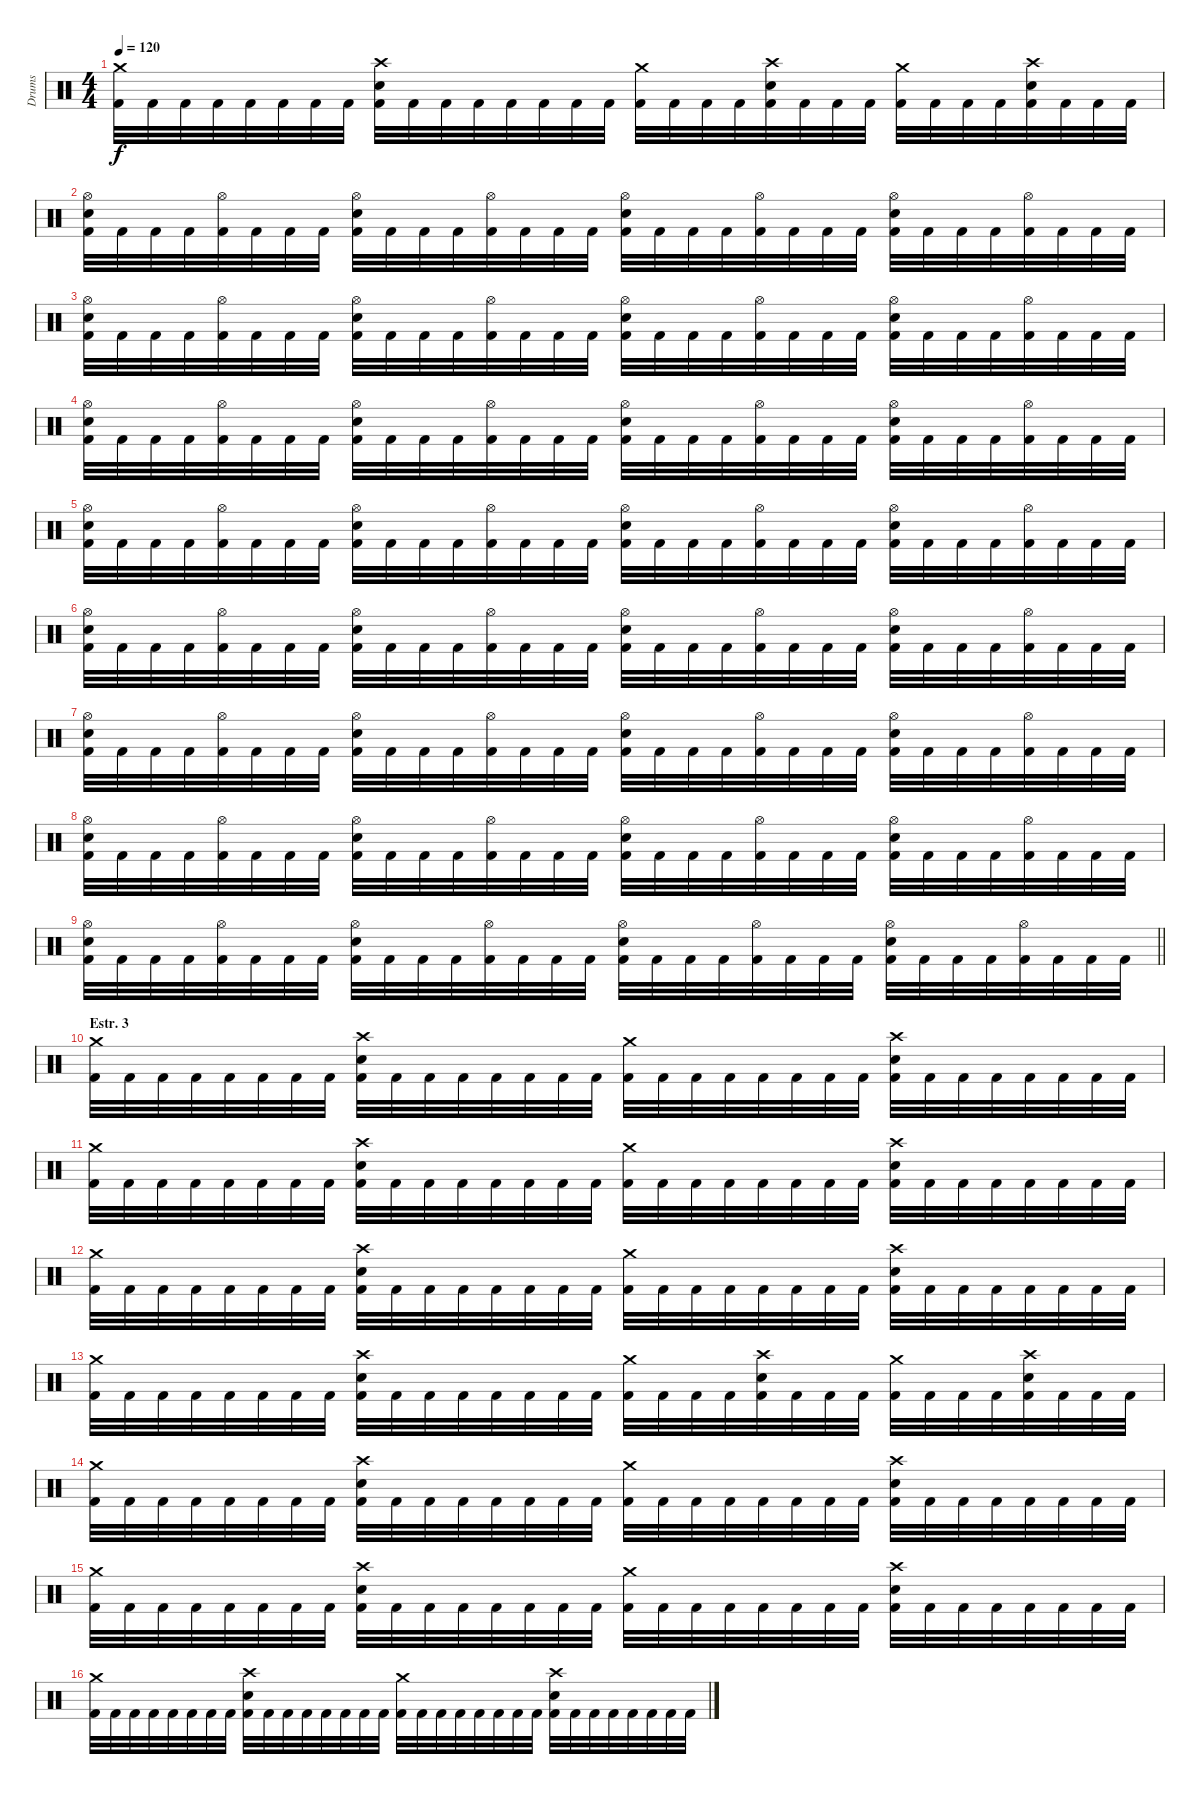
\track ("Drums" "Drums") {instrument percussion}
\staff {score}
\articulation defaults
\ts (4 4)
\tempo 120
\clef neutral
\ks c
("Kick (hit) 2" "Crash medium (hit)").32{dy f} "Kick (hit) 2".32 "Kick (hit) 2".32 "Kick (hit) 2".32 "Kick (hit) 2".32 "Kick (hit) 2".32 "Kick (hit) 2".32 "Kick (hit) 2".32 ("Kick (hit) 2" "Electric Snare (hit)" "Crash high (hit)").32 "Kick (hit) 2".32 "Kick (hit) 2".32 "Kick (hit) 2".32 "Kick (hit) 2".32 "Kick (hit) 2".32 "Kick (hit) 2".32 "Kick (hit) 2".32 ("Kick (hit) 2" "Crash medium (hit)").32 "Kick (hit) 2".32 "Kick (hit) 2".32 "Kick (hit) 2".32 ("Kick (hit) 2" "Electric Snare (hit)" "Crash high (hit)").32 "Kick (hit) 2".32 "Kick (hit) 2".32 "Kick (hit) 2".32 ("Kick (hit) 2" "Crash medium (hit)").32 "Kick (hit) 2".32 "Kick (hit) 2".32 "Kick (hit) 2".32 ("Kick (hit) 2" "Electric Snare (hit)" "Crash high (hit)").32 "Kick (hit) 2".32 "Kick (hit) 2".32 "Kick (hit) 2".32 |
("Kick (hit) 2" "Electric Snare (hit)" "Hi-Hat (open)").32 "Kick (hit) 2".32 "Kick (hit) 2".32 "Kick (hit) 2".32 ("Kick (hit) 2" "Hi-Hat (open)").32 "Kick (hit) 2".32 "Kick (hit) 2".32 "Kick (hit) 2".32 ("Kick (hit) 2" "Electric Snare (hit)" "Hi-Hat (open)").32 "Kick (hit) 2".32 "Kick (hit) 2".32 "Kick (hit) 2".32 ("Kick (hit) 2" "Hi-Hat (open)").32 "Kick (hit) 2".32 "Kick (hit) 2".32 "Kick (hit) 2".32 ("Kick (hit) 2" "Electric Snare (hit)" "Hi-Hat (open)").32 "Kick (hit) 2".32 "Kick (hit) 2".32 "Kick (hit) 2".32 ("Kick (hit) 2" "Hi-Hat (open)").32 "Kick (hit) 2".32 "Kick (hit) 2".32 "Kick (hit) 2".32 ("Kick (hit) 2" "Electric Snare (hit)" "Hi-Hat (open)").32 "Kick (hit) 2".32 "Kick (hit) 2".32 "Kick (hit) 2".32 ("Kick (hit) 2" "Hi-Hat (open)").32 "Kick (hit) 2".32 "Kick (hit) 2".32 "Kick (hit) 2".32 |
("Kick (hit) 2" "Electric Snare (hit)" "Hi-Hat (open)").32 "Kick (hit) 2".32 "Kick (hit) 2".32 "Kick (hit) 2".32 ("Kick (hit) 2" "Hi-Hat (open)").32 "Kick (hit) 2".32 "Kick (hit) 2".32 "Kick (hit) 2".32 ("Kick (hit) 2" "Electric Snare (hit)" "Hi-Hat (open)").32 "Kick (hit) 2".32 "Kick (hit) 2".32 "Kick (hit) 2".32 ("Kick (hit) 2" "Hi-Hat (open)").32 "Kick (hit) 2".32 "Kick (hit) 2".32 "Kick (hit) 2".32 ("Kick (hit) 2" "Electric Snare (hit)" "Hi-Hat (open)").32 "Kick (hit) 2".32 "Kick (hit) 2".32 "Kick (hit) 2".32 ("Kick (hit) 2" "Hi-Hat (open)").32 "Kick (hit) 2".32 "Kick (hit) 2".32 "Kick (hit) 2".32 ("Kick (hit) 2" "Electric Snare (hit)" "Hi-Hat (open)").32 "Kick (hit) 2".32 "Kick (hit) 2".32 "Kick (hit) 2".32 ("Kick (hit) 2" "Hi-Hat (open)").32 "Kick (hit) 2".32 "Kick (hit) 2".32 "Kick (hit) 2".32 |
("Kick (hit) 2" "Electric Snare (hit)" "Hi-Hat (open)").32 "Kick (hit) 2".32 "Kick (hit) 2".32 "Kick (hit) 2".32 ("Kick (hit) 2" "Hi-Hat (open)").32 "Kick (hit) 2".32 "Kick (hit) 2".32 "Kick (hit) 2".32 ("Kick (hit) 2" "Electric Snare (hit)" "Hi-Hat (open)").32 "Kick (hit) 2".32 "Kick (hit) 2".32 "Kick (hit) 2".32 ("Kick (hit) 2" "Hi-Hat (open)").32 "Kick (hit) 2".32 "Kick (hit) 2".32 "Kick (hit) 2".32 ("Kick (hit) 2" "Electric Snare (hit)" "Hi-Hat (open)").32 "Kick (hit) 2".32 "Kick (hit) 2".32 "Kick (hit) 2".32 ("Kick (hit) 2" "Hi-Hat (open)").32 "Kick (hit) 2".32 "Kick (hit) 2".32 "Kick (hit) 2".32 ("Kick (hit) 2" "Electric Snare (hit)" "Hi-Hat (open)").32 "Kick (hit) 2".32 "Kick (hit) 2".32 "Kick (hit) 2".32 ("Kick (hit) 2" "Hi-Hat (open)").32 "Kick (hit) 2".32 "Kick (hit) 2".32 "Kick (hit) 2".32 |
("Kick (hit) 2" "Electric Snare (hit)" "Hi-Hat (open)").32 "Kick (hit) 2".32 "Kick (hit) 2".32 "Kick (hit) 2".32 ("Kick (hit) 2" "Hi-Hat (open)").32 "Kick (hit) 2".32 "Kick (hit) 2".32 "Kick (hit) 2".32 ("Kick (hit) 2" "Electric Snare (hit)" "Hi-Hat (open)").32 "Kick (hit) 2".32 "Kick (hit) 2".32 "Kick (hit) 2".32 ("Kick (hit) 2" "Hi-Hat (open)").32 "Kick (hit) 2".32 "Kick (hit) 2".32 "Kick (hit) 2".32 ("Kick (hit) 2" "Electric Snare (hit)" "Hi-Hat (open)").32 "Kick (hit) 2".32 "Kick (hit) 2".32 "Kick (hit) 2".32 ("Kick (hit) 2" "Hi-Hat (open)").32 "Kick (hit) 2".32 "Kick (hit) 2".32 "Kick (hit) 2".32 ("Kick (hit) 2" "Electric Snare (hit)" "Hi-Hat (open)").32 "Kick (hit) 2".32 "Kick (hit) 2".32 "Kick (hit) 2".32 ("Kick (hit) 2" "Hi-Hat (open)").32 "Kick (hit) 2".32 "Kick (hit) 2".32 "Kick (hit) 2".32 |
("Kick (hit) 2" "Electric Snare (hit)" "Hi-Hat (open)").32 "Kick (hit) 2".32 "Kick (hit) 2".32 "Kick (hit) 2".32 ("Kick (hit) 2" "Hi-Hat (open)").32 "Kick (hit) 2".32 "Kick (hit) 2".32 "Kick (hit) 2".32 ("Kick (hit) 2" "Electric Snare (hit)" "Hi-Hat (open)").32 "Kick (hit) 2".32 "Kick (hit) 2".32 "Kick (hit) 2".32 ("Kick (hit) 2" "Hi-Hat (open)").32 "Kick (hit) 2".32 "Kick (hit) 2".32 "Kick (hit) 2".32 ("Kick (hit) 2" "Electric Snare (hit)" "Hi-Hat (open)").32 "Kick (hit) 2".32 "Kick (hit) 2".32 "Kick (hit) 2".32 ("Kick (hit) 2" "Hi-Hat (open)").32 "Kick (hit) 2".32 "Kick (hit) 2".32 "Kick (hit) 2".32 ("Kick (hit) 2" "Electric Snare (hit)" "Hi-Hat (open)").32 "Kick (hit) 2".32 "Kick (hit) 2".32 "Kick (hit) 2".32 ("Kick (hit) 2" "Hi-Hat (open)").32 "Kick (hit) 2".32 "Kick (hit) 2".32 "Kick (hit) 2".32 |
("Kick (hit) 2" "Electric Snare (hit)" "Hi-Hat (open)").32 "Kick (hit) 2".32 "Kick (hit) 2".32 "Kick (hit) 2".32 ("Kick (hit) 2" "Hi-Hat (open)").32 "Kick (hit) 2".32 "Kick (hit) 2".32 "Kick (hit) 2".32 ("Kick (hit) 2" "Electric Snare (hit)" "Hi-Hat (open)").32 "Kick (hit) 2".32 "Kick (hit) 2".32 "Kick (hit) 2".32 ("Kick (hit) 2" "Hi-Hat (open)").32 "Kick (hit) 2".32 "Kick (hit) 2".32 "Kick (hit) 2".32 ("Kick (hit) 2" "Electric Snare (hit)" "Hi-Hat (open)").32 "Kick (hit) 2".32 "Kick (hit) 2".32 "Kick (hit) 2".32 ("Kick (hit) 2" "Hi-Hat (open)").32 "Kick (hit) 2".32 "Kick (hit) 2".32 "Kick (hit) 2".32 ("Kick (hit) 2" "Electric Snare (hit)" "Hi-Hat (open)").32 "Kick (hit) 2".32 "Kick (hit) 2".32 "Kick (hit) 2".32 ("Kick (hit) 2" "Hi-Hat (open)").32 "Kick (hit) 2".32 "Kick (hit) 2".32 "Kick (hit) 2".32 |
("Kick (hit) 2" "Electric Snare (hit)" "Hi-Hat (open)").32 "Kick (hit) 2".32 "Kick (hit) 2".32 "Kick (hit) 2".32 ("Kick (hit) 2" "Hi-Hat (open)").32 "Kick (hit) 2".32 "Kick (hit) 2".32 "Kick (hit) 2".32 ("Kick (hit) 2" "Electric Snare (hit)" "Hi-Hat (open)").32 "Kick (hit) 2".32 "Kick (hit) 2".32 "Kick (hit) 2".32 ("Kick (hit) 2" "Hi-Hat (open)").32 "Kick (hit) 2".32 "Kick (hit) 2".32 "Kick (hit) 2".32 ("Kick (hit) 2" "Electric Snare (hit)" "Hi-Hat (open)").32 "Kick (hit) 2".32 "Kick (hit) 2".32 "Kick (hit) 2".32 ("Kick (hit) 2" "Hi-Hat (open)").32 "Kick (hit) 2".32 "Kick (hit) 2".32 "Kick (hit) 2".32 ("Kick (hit) 2" "Electric Snare (hit)" "Hi-Hat (open)").32 "Kick (hit) 2".32 "Kick (hit) 2".32 "Kick (hit) 2".32 ("Kick (hit) 2" "Hi-Hat (open)").32 "Kick (hit) 2".32 "Kick (hit) 2".32 "Kick (hit) 2".32 |
\barLineRight lightlight
("Kick (hit) 2" "Electric Snare (hit)" "Hi-Hat (open)").32 "Kick (hit) 2".32 "Kick (hit) 2".32 "Kick (hit) 2".32 ("Kick (hit) 2" "Hi-Hat (open)").32 "Kick (hit) 2".32 "Kick (hit) 2".32 "Kick (hit) 2".32 ("Kick (hit) 2" "Electric Snare (hit)" "Hi-Hat (open)").32 "Kick (hit) 2".32 "Kick (hit) 2".32 "Kick (hit) 2".32 ("Kick (hit) 2" "Hi-Hat (open)").32 "Kick (hit) 2".32 "Kick (hit) 2".32 "Kick (hit) 2".32 ("Kick (hit) 2" "Electric Snare (hit)" "Hi-Hat (open)").32 "Kick (hit) 2".32 "Kick (hit) 2".32 "Kick (hit) 2".32 ("Kick (hit) 2" "Hi-Hat (open)").32 "Kick (hit) 2".32 "Kick (hit) 2".32 "Kick (hit) 2".32 ("Kick (hit) 2" "Electric Snare (hit)" "Hi-Hat (open)").32 "Kick (hit) 2".32 "Kick (hit) 2".32 "Kick (hit) 2".32 ("Kick (hit) 2" "Hi-Hat (open)").32 "Kick (hit) 2".32 "Kick (hit) 2".32 "Kick (hit) 2".32 |
\section ("" "Estr. 3")
("Kick (hit) 2" "Crash medium (hit)").32 "Kick (hit) 2".32 "Kick (hit) 2".32 "Kick (hit) 2".32 "Kick (hit) 2".32 "Kick (hit) 2".32 "Kick (hit) 2".32 "Kick (hit) 2".32 ("Kick (hit) 2" "Electric Snare (hit)" "Crash high (hit)").32 "Kick (hit) 2".32 "Kick (hit) 2".32 "Kick (hit) 2".32 "Kick (hit) 2".32 "Kick (hit) 2".32 "Kick (hit) 2".32 "Kick (hit) 2".32 ("Kick (hit) 2" "Crash medium (hit)").32 "Kick (hit) 2".32 "Kick (hit) 2".32 "Kick (hit) 2".32 "Kick (hit) 2".32 "Kick (hit) 2".32 "Kick (hit) 2".32 "Kick (hit) 2".32 ("Kick (hit) 2" "Electric Snare (hit)" "Crash high (hit)").32 "Kick (hit) 2".32 "Kick (hit) 2".32 "Kick (hit) 2".32 "Kick (hit) 2".32 "Kick (hit) 2".32 "Kick (hit) 2".32 "Kick (hit) 2".32 |
("Kick (hit) 2" "Crash medium (hit)").32 "Kick (hit) 2".32 "Kick (hit) 2".32 "Kick (hit) 2".32 "Kick (hit) 2".32 "Kick (hit) 2".32 "Kick (hit) 2".32 "Kick (hit) 2".32 ("Kick (hit) 2" "Electric Snare (hit)" "Crash high (hit)").32 "Kick (hit) 2".32 "Kick (hit) 2".32 "Kick (hit) 2".32 "Kick (hit) 2".32 "Kick (hit) 2".32 "Kick (hit) 2".32 "Kick (hit) 2".32 ("Kick (hit) 2" "Crash medium (hit)").32 "Kick (hit) 2".32 "Kick (hit) 2".32 "Kick (hit) 2".32 "Kick (hit) 2".32 "Kick (hit) 2".32 "Kick (hit) 2".32 "Kick (hit) 2".32 ("Kick (hit) 2" "Electric Snare (hit)" "Crash high (hit)").32 "Kick (hit) 2".32 "Kick (hit) 2".32 "Kick (hit) 2".32 "Kick (hit) 2".32 "Kick (hit) 2".32 "Kick (hit) 2".32 "Kick (hit) 2".32 |
("Kick (hit) 2" "Crash medium (hit)").32 "Kick (hit) 2".32 "Kick (hit) 2".32 "Kick (hit) 2".32 "Kick (hit) 2".32 "Kick (hit) 2".32 "Kick (hit) 2".32 "Kick (hit) 2".32 ("Kick (hit) 2" "Electric Snare (hit)" "Crash high (hit)").32 "Kick (hit) 2".32 "Kick (hit) 2".32 "Kick (hit) 2".32 "Kick (hit) 2".32 "Kick (hit) 2".32 "Kick (hit) 2".32 "Kick (hit) 2".32 ("Kick (hit) 2" "Crash medium (hit)").32 "Kick (hit) 2".32 "Kick (hit) 2".32 "Kick (hit) 2".32 "Kick (hit) 2".32 "Kick (hit) 2".32 "Kick (hit) 2".32 "Kick (hit) 2".32 ("Kick (hit) 2" "Electric Snare (hit)" "Crash high (hit)").32 "Kick (hit) 2".32 "Kick (hit) 2".32 "Kick (hit) 2".32 "Kick (hit) 2".32 "Kick (hit) 2".32 "Kick (hit) 2".32 "Kick (hit) 2".32 |
("Kick (hit) 2" "Crash medium (hit)").32 "Kick (hit) 2".32 "Kick (hit) 2".32 "Kick (hit) 2".32 "Kick (hit) 2".32 "Kick (hit) 2".32 "Kick (hit) 2".32 "Kick (hit) 2".32 ("Kick (hit) 2" "Electric Snare (hit)" "Crash high (hit)").32 "Kick (hit) 2".32 "Kick (hit) 2".32 "Kick (hit) 2".32 "Kick (hit) 2".32 "Kick (hit) 2".32 "Kick (hit) 2".32 "Kick (hit) 2".32 ("Kick (hit) 2" "Crash medium (hit)").32 "Kick (hit) 2".32 "Kick (hit) 2".32 "Kick (hit) 2".32 ("Kick (hit) 2" "Electric Snare (hit)" "Crash high (hit)").32 "Kick (hit) 2".32 "Kick (hit) 2".32 "Kick (hit) 2".32 ("Kick (hit) 2" "Crash medium (hit)").32 "Kick (hit) 2".32 "Kick (hit) 2".32 "Kick (hit) 2".32 ("Kick (hit) 2" "Electric Snare (hit)" "Crash high (hit)").32 "Kick (hit) 2".32 "Kick (hit) 2".32 "Kick (hit) 2".32 |
("Kick (hit) 2" "Crash medium (hit)").32 "Kick (hit) 2".32 "Kick (hit) 2".32 "Kick (hit) 2".32 "Kick (hit) 2".32 "Kick (hit) 2".32 "Kick (hit) 2".32 "Kick (hit) 2".32 ("Kick (hit) 2" "Electric Snare (hit)" "Crash high (hit)").32 "Kick (hit) 2".32 "Kick (hit) 2".32 "Kick (hit) 2".32 "Kick (hit) 2".32 "Kick (hit) 2".32 "Kick (hit) 2".32 "Kick (hit) 2".32 ("Kick (hit) 2" "Crash medium (hit)").32 "Kick (hit) 2".32 "Kick (hit) 2".32 "Kick (hit) 2".32 "Kick (hit) 2".32 "Kick (hit) 2".32 "Kick (hit) 2".32 "Kick (hit) 2".32 ("Kick (hit) 2" "Electric Snare (hit)" "Crash high (hit)").32 "Kick (hit) 2".32 "Kick (hit) 2".32 "Kick (hit) 2".32 "Kick (hit) 2".32 "Kick (hit) 2".32 "Kick (hit) 2".32 "Kick (hit) 2".32 |
("Kick (hit) 2" "Crash medium (hit)").32 "Kick (hit) 2".32 "Kick (hit) 2".32 "Kick (hit) 2".32 "Kick (hit) 2".32 "Kick (hit) 2".32 "Kick (hit) 2".32 "Kick (hit) 2".32 ("Kick (hit) 2" "Electric Snare (hit)" "Crash high (hit)").32 "Kick (hit) 2".32 "Kick (hit) 2".32 "Kick (hit) 2".32 "Kick (hit) 2".32 "Kick (hit) 2".32 "Kick (hit) 2".32 "Kick (hit) 2".32 ("Kick (hit) 2" "Crash medium (hit)").32 "Kick (hit) 2".32 "Kick (hit) 2".32 "Kick (hit) 2".32 "Kick (hit) 2".32 "Kick (hit) 2".32 "Kick (hit) 2".32 "Kick (hit) 2".32 ("Kick (hit) 2" "Electric Snare (hit)" "Crash high (hit)").32 "Kick (hit) 2".32 "Kick (hit) 2".32 "Kick (hit) 2".32 "Kick (hit) 2".32 "Kick (hit) 2".32 "Kick (hit) 2".32 "Kick (hit) 2".32 |
("Kick (hit) 2" "Crash medium (hit)").32 "Kick (hit) 2".32 "Kick (hit) 2".32 "Kick (hit) 2".32 "Kick (hit) 2".32 "Kick (hit) 2".32 "Kick (hit) 2".32 "Kick (hit) 2".32 ("Kick (hit) 2" "Electric Snare (hit)" "Crash high (hit)").32 "Kick (hit) 2".32 "Kick (hit) 2".32 "Kick (hit) 2".32 "Kick (hit) 2".32 "Kick (hit) 2".32 "Kick (hit) 2".32 "Kick (hit) 2".32 ("Kick (hit) 2" "Crash medium (hit)").32 "Kick (hit) 2".32 "Kick (hit) 2".32 "Kick (hit) 2".32 "Kick (hit) 2".32 "Kick (hit) 2".32 "Kick (hit) 2".32 "Kick (hit) 2".32 ("Kick (hit) 2" "Electric Snare (hit)" "Crash high (hit)").32 "Kick (hit) 2".32 "Kick (hit) 2".32 "Kick (hit) 2".32 "Kick (hit) 2".32 "Kick (hit) 2".32 "Kick (hit) 2".32 "Kick (hit) 2".32
